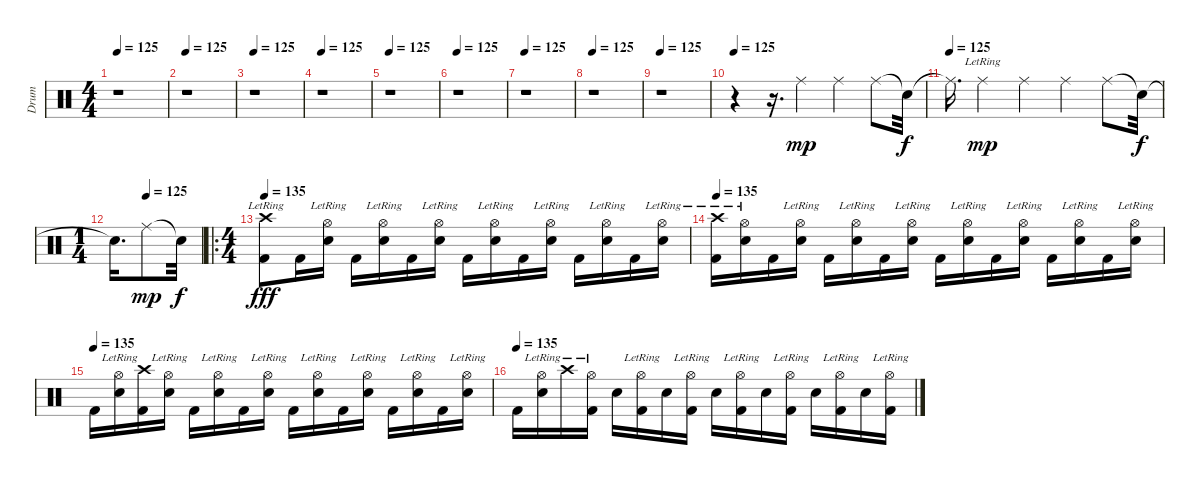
\track ("Drum" "Drum") {instrument percussion}
\staff {score}
\articulation defaults
\ts (4 4)
\tempo 125
\clef neutral
\ks c
r.1{dy fff} |
\tempo 125
r.1 |
\tempo 125
r.1 |
\tempo 125
r.1 |
\tempo 125
r.1 |
\tempo 125
r.1 |
\tempo 125
r.1 |
\tempo 125
r.1 |
\tempo 125
r.1 |
\tempo 125
r.4 r.16{d} "Ride (middle)".4{dy mp} "Ride (middle)".4 "Ride (middle)".8 "Snare (hit)"{t}.32{dy f} |
\tempo (125)
"Ride (middle)"{t}.16{d} "Ride (middle)"{lr}.4{dy mp} "Ride (middle)".4 "Ride (middle)".4 "Ride (middle)".8 "Snare (hit)"{t}.32{dy f} |
\ts (1 4)
\tempo (125 0.375)
"Snare (hit)"{t}.16{d} "Ride (middle)".8{dy mp} "Snare (hit)"{t}.32{dy f} |
\ro
\ts (4 4)
\tempo 135
("Crash high (hit)"{lr} "Kick (hit) 2").8{dy fff} "Kick (hit) 2".16 ("Hi-Hat (open)"{lr} "Electric Snare (hit)").16 "Kick (hit) 2".16 ("Hi-Hat (open)"{lr} "Electric Snare (hit)").16 "Kick (hit) 2".16 ("Hi-Hat (open)"{lr} "Electric Snare (hit)").16 "Kick (hit) 2".16 ("Hi-Hat (open)"{lr} "Electric Snare (hit)").16 "Kick (hit) 2".16 ("Hi-Hat (open)"{lr} "Electric Snare (hit)").16 "Kick (hit) 2".16 ("Hi-Hat (open)"{lr} "Electric Snare (hit)").16 "Kick (hit) 2".16 ("Hi-Hat (open)"{lr} "Electric Snare (hit)").16 |
\tempo 135
("Crash high (hit)"{lr} "Kick (hit) 2").16 ("Hi-Hat (open)"{lr} "Electric Snare (hit)").16 "Kick (hit) 2".16 ("Hi-Hat (open)"{lr} "Electric Snare (hit)").16 "Kick (hit) 2".16 ("Hi-Hat (open)"{lr} "Electric Snare (hit)").16 "Kick (hit) 2".16 ("Hi-Hat (open)"{lr} "Electric Snare (hit)").16 "Kick (hit) 2".16 ("Hi-Hat (open)"{lr} "Electric Snare (hit)").16 "Kick (hit) 2".16 ("Hi-Hat (open)"{lr} "Electric Snare (hit)").16 "Kick (hit) 2".16 ("Hi-Hat (open)"{lr} "Electric Snare (hit)").16 "Kick (hit) 2".16 ("Hi-Hat (open)"{lr} "Electric Snare (hit)").16 |
\tempo (135)
"Kick (hit) 2".16 ("Hi-Hat (open)"{lr} "Electric Snare (hit)").16 ("Crash high (hit)" "Kick (hit) 2").16 ("Hi-Hat (open)"{lr} "Electric Snare (hit)").16 "Kick (hit) 2".16 ("Hi-Hat (open)"{lr} "Electric Snare (hit)").16 "Kick (hit) 2".16 ("Hi-Hat (open)"{lr} "Electric Snare (hit)").16 "Kick (hit) 2".16 ("Hi-Hat (open)"{lr} "Electric Snare (hit)").16 "Kick (hit) 2".16 ("Hi-Hat (open)"{lr} "Electric Snare (hit)").16 "Kick (hit) 2".16 ("Hi-Hat (open)"{lr} "Electric Snare (hit)").16 "Kick (hit) 2".16 ("Hi-Hat (open)"{lr} "Electric Snare (hit)").16 |
\tempo (135)
"Kick (hit) 2".16 ("Hi-Hat (open)"{lr} "Electric Snare (hit)").16 "Crash high (hit)"{lr}.16 ("Hi-Hat (open)"{lr} "Kick (hit) 2").16 "Electric Snare (hit)".16 ("Hi-Hat (open)"{lr} "Kick (hit) 2").16 "Electric Snare (hit)".16 ("Hi-Hat (open)"{lr} "Kick (hit) 2").16 "Electric Snare (hit)".16 ("Hi-Hat (open)"{lr} "Kick (hit) 2").16 "Electric Snare (hit)".16 ("Hi-Hat (open)"{lr} "Kick (hit) 2").16 "Electric Snare (hit)".16 ("Hi-Hat (open)"{lr} "Kick (hit) 2").16 "Electric Snare (hit)".16 ("Hi-Hat (open)"{lr} "Kick (hit) 2").16
